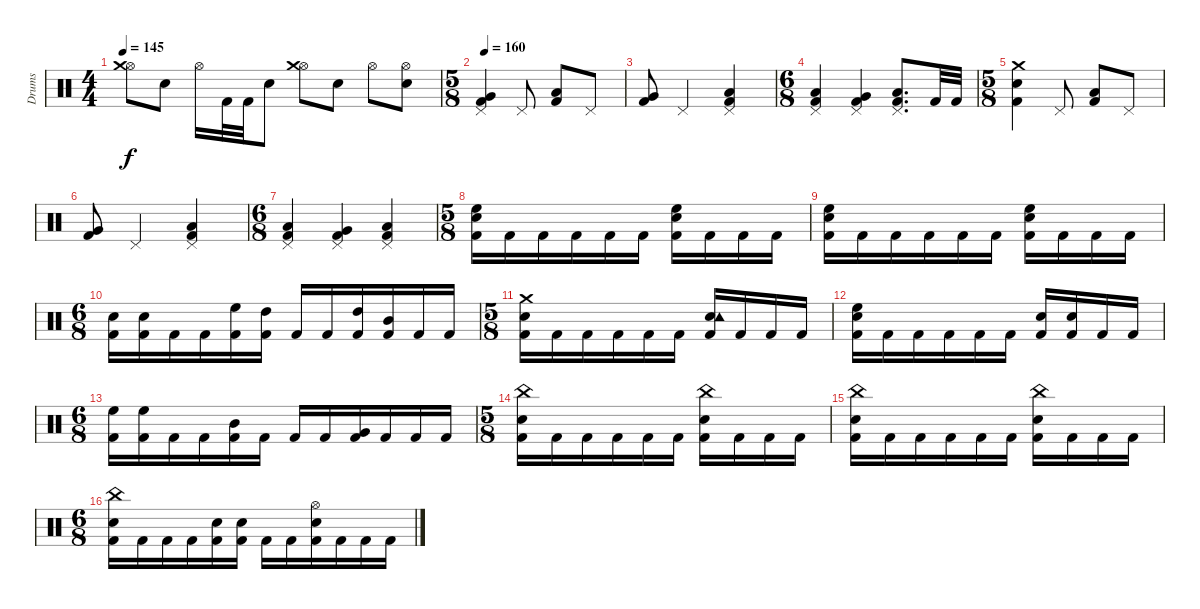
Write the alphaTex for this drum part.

\track ("Drums" "Drums") {instrument percussion}
\staff {score}
\articulation defaults
\ts (4 4)
\tempo 145
\clef neutral
\ks c
("Hi-Hat (open)" "Crash medium (hit)").8{dy f} "Electric Snare (hit)".8 "Hi-Hat (open)".16 "Kick (hit) 2".32 "Kick (hit) 2".32 "Electric Snare (hit)".8 ("Hi-Hat (open)" "Crash medium (hit)").8 "Electric Snare (hit)".8 "Hi-Hat (open)".8 ("Electric Snare (hit)" "Hi-Hat (open)").8 |
\ts (5 8)
\tempo 160
("Kick (hit) 2" "Pedal Hi-Hat (hit)" "Very Low Tom (hit)").4 "Pedal Hi-Hat (hit)".8 ("Low Floor Tom (hit)" "Kick (hit) 2").8 "Pedal Hi-Hat (hit)".8 |
("Very Low Tom (hit)" "Kick (hit) 2").8 "Pedal Hi-Hat (hit)".4 ("Low Floor Tom (hit)" "Kick (hit) 2" "Pedal Hi-Hat (hit)").4 |
\ts (6 8)
("Kick (hit) 2" "Low Tom (hit)" "Pedal Hi-Hat (hit)").4 ("Very Low Tom (hit)" "Kick (hit) 2" "Pedal Hi-Hat (hit)").4 ("Kick (hit) 2" "Low Floor Tom (hit)" "Pedal Hi-Hat (hit)").8{d} "Kick (hit) 2".32 "Kick (hit) 2".32 |
\ts (5 8)
("Kick (hit) 2" "Electric Snare (hit)" "Crash medium (hit)").4 "Pedal Hi-Hat (hit)".8 ("Low Floor Tom (hit)" "Kick (hit) 2").8 "Pedal Hi-Hat (hit)".8 |
("Very Low Tom (hit)" "Kick (hit) 2").8 "Pedal Hi-Hat (hit)".4 ("Low Floor Tom (hit)" "Kick (hit) 2" "Pedal Hi-Hat (hit)").4 |
\ts (6 8)
("Kick (hit) 2" "Low Tom (hit)" "Pedal Hi-Hat (hit)").4 ("Very Low Tom (hit)" "Kick (hit) 2" "Pedal Hi-Hat (hit)").4 ("Pedal Hi-Hat (hit)" "Low Floor Tom (hit)" "Kick (hit) 2").4 |
\ts (5 8)
("Kick (hit) 2" "High Floor Tom (hit)" "Electric Snare (hit)").16 "Kick (hit) 2".16 "Kick (hit) 2".16 "Kick (hit) 2".16 "Kick (hit) 2".16 "Kick (hit) 2".16 ("Kick (hit) 2" "Electric Snare (hit)" "High Floor Tom (hit)").16 "Kick (hit) 2".16 "Kick (hit) 2".16 "Kick (hit) 2".16 |
("Kick (hit) 2" "Electric Snare (hit)" "High Floor Tom (hit)").16 "Kick (hit) 2".16 "Kick (hit) 2".16 "Kick (hit) 2".16 "Kick (hit) 2".16 "Kick (hit) 2".16 ("Kick (hit) 2" "High Floor Tom (hit)" "Electric Snare (hit)").16 "Kick (hit) 2".16 "Kick (hit) 2".16 "Kick (hit) 2".16 |
\ts (6 8)
("Kick (hit) 2" "Electric Snare (hit)").16 ("Kick (hit) 2" "Electric Snare (hit)").16 "Kick (hit) 2".16 "Kick (hit) 2".16 ("Kick (hit) 2" "High Floor Tom (hit)").16 ("Kick (hit) 2" "High Tom (hit)").16 "Kick (hit) 2".16 "Kick (hit) 2".16 ("Kick (hit) 2" "High Tom (hit)").16 ("Kick (hit) 2" "Mid Tom (hit)").16 "Kick (hit) 2".16 "Kick (hit) 2".16 |
\ts (5 8)
("Kick (hit) 2" "Crash medium (hit)" "Electric Snare (hit)").16 "Kick (hit) 2".16 "Kick (hit) 2".16 "Kick (hit) 2".16 "Kick (hit) 2".16 "Kick (hit) 2".16 ("Kick (hit) 2" "Electric Snare (hit)" "Tambourine (hit)").16 "Kick (hit) 2".16 "Kick (hit) 2".16 "Kick (hit) 2".16 |
("Kick (hit) 2" "Electric Snare (hit)" "High Floor Tom (hit)").16 "Kick (hit) 2".16 "Kick (hit) 2".16 "Kick (hit) 2".16 "Kick (hit) 2".16 "Kick (hit) 2".16 ("Kick (hit) 2" "Electric Snare (hit)").16 ("Kick (hit) 2" "Electric Snare (hit)").16 "Kick (hit) 2".16 "Kick (hit) 2".16 |
\ts (6 8)
("Kick (hit) 2" "High Floor Tom (hit)").16 ("Kick (hit) 2" "High Floor Tom (hit)").16 "Kick (hit) 2".16 "Kick (hit) 2".16 ("Kick (hit) 2" "Mid Tom (hit)").16 "Kick (hit) 2".16 "Kick (hit) 2".16 "Kick (hit) 2".16 ("Kick (hit) 2" "Very Low Tom (hit)").16 "Kick (hit) 2".16 "Kick (hit) 2".16 "Kick (hit) 2".16 |
\ts (5 8)
("Kick (hit) 2" "China (hit)" "Electric Snare (hit)").16 "Kick (hit) 2".16 "Kick (hit) 2".16 "Kick (hit) 2".16 "Kick (hit) 2".16 "Kick (hit) 2".16 ("Kick (hit) 2" "Electric Snare (hit)" "China (hit)").16 "Kick (hit) 2".16 "Kick (hit) 2".16 "Kick (hit) 2".16 |
("Kick (hit) 2" "Electric Snare (hit)" "China (hit)").16 "Kick (hit) 2".16 "Kick (hit) 2".16 "Kick (hit) 2".16 "Kick (hit) 2".16 "Kick (hit) 2".16 ("Kick (hit) 2" "Electric Snare (hit)" "China (hit)").16 "Kick (hit) 2".16 "Kick (hit) 2".16 "Kick (hit) 2".16 |
\ts (6 8)
("Kick (hit) 2" "Electric Snare (hit)" "China (hit)").16 "Kick (hit) 2".16 "Kick (hit) 2".16 "Kick (hit) 2".16 ("Kick (hit) 2" "Electric Snare (hit)").16 ("Kick (hit) 2" "Electric Snare (hit)").16 "Kick (hit) 2".16 "Kick (hit) 2".16 ("Kick (hit) 2" "Electric Snare (hit)" "Hi-Hat (open)").16 "Kick (hit) 2".16 "Kick (hit) 2".16 "Kick (hit) 2".16
